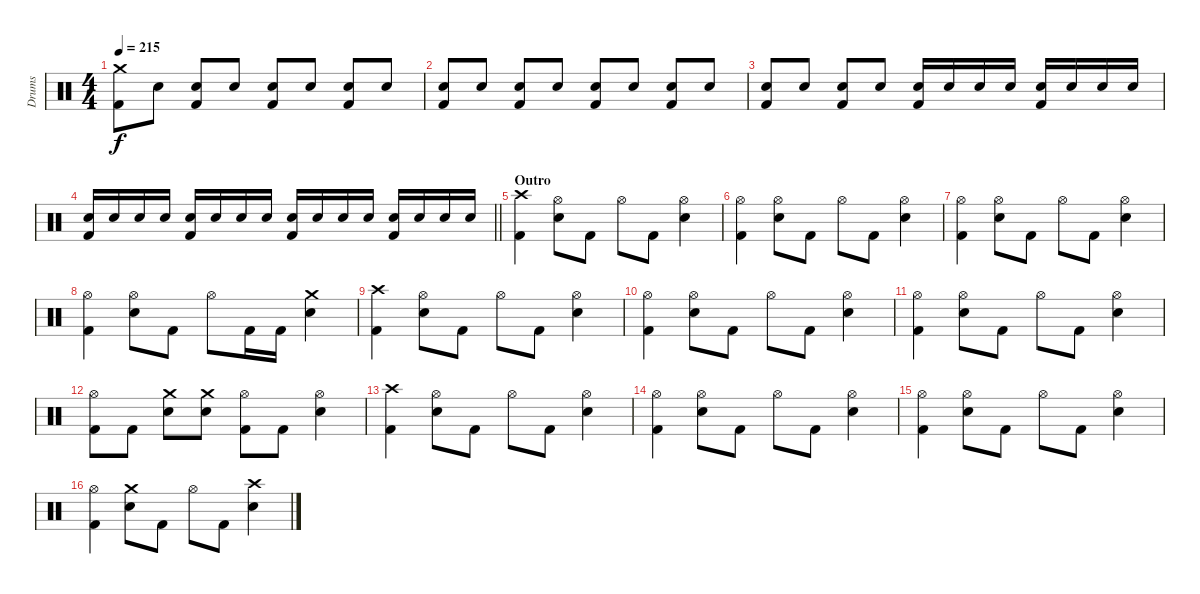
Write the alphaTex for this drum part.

\track ("Drums" "Drums") {instrument percussion}
\staff {score}
\articulation defaults
\ts (4 4)
\tempo 215
\clef neutral
\ks c
("Crash medium (hit)" "Kick (hit) 2").8{dy f} "Electric Snare (hit)".8{volume 9} ("Electric Snare (hit)" "Kick (hit) 2").8 "Electric Snare (hit)".8 ("Electric Snare (hit)" "Kick (hit) 2").8 "Electric Snare (hit)".8 ("Electric Snare (hit)" "Kick (hit) 2").8 "Electric Snare (hit)".8 |
("Electric Snare (hit)" "Kick (hit) 2").8 "Electric Snare (hit)".8 ("Electric Snare (hit)" "Kick (hit) 2").8 "Electric Snare (hit)".8 ("Electric Snare (hit)" "Kick (hit) 2").8 "Electric Snare (hit)".8 ("Electric Snare (hit)" "Kick (hit) 2").8 "Electric Snare (hit)".8 |
("Electric Snare (hit)" "Kick (hit) 2").8 "Electric Snare (hit)".8 ("Electric Snare (hit)" "Kick (hit) 2").8 "Electric Snare (hit)".8 ("Electric Snare (hit)" "Kick (hit) 2").16 "Electric Snare (hit)".16 "Electric Snare (hit)".16 "Electric Snare (hit)".16 ("Electric Snare (hit)" "Kick (hit) 2").16{volume 12} "Electric Snare (hit)".16 "Electric Snare (hit)".16 "Electric Snare (hit)".16 |
\barLineRight lightlight
("Electric Snare (hit)" "Kick (hit) 2").16 "Electric Snare (hit)".16 "Electric Snare (hit)".16 "Electric Snare (hit)".16 ("Electric Snare (hit)" "Kick (hit) 2").16 "Electric Snare (hit)".16 "Electric Snare (hit)".16 "Electric Snare (hit)".16 ("Electric Snare (hit)" "Kick (hit) 2").16 "Electric Snare (hit)".16 "Electric Snare (hit)".16 "Electric Snare (hit)".16 ("Electric Snare (hit)" "Kick (hit) 2").16 "Electric Snare (hit)".16 "Electric Snare (hit)".16 "Electric Snare (hit)".16 |
\section ("" "Outro")
("Crash high (hit)" "Kick (hit) 2").4 ("Hi-Hat (open)" "Electric Snare (hit)").8 "Kick (hit) 2".8 "Hi-Hat (open)".8 "Kick (hit) 2".8 ("Hi-Hat (open)" "Electric Snare (hit)").4 |
("Hi-Hat (open)" "Kick (hit) 2").4 ("Hi-Hat (open)" "Electric Snare (hit)").8 "Kick (hit) 2".8 "Hi-Hat (open)".8 "Kick (hit) 2".8 ("Hi-Hat (open)" "Electric Snare (hit)").4 |
("Hi-Hat (open)" "Kick (hit) 2").4 ("Hi-Hat (open)" "Electric Snare (hit)").8 "Kick (hit) 2".8 "Hi-Hat (open)".8 "Kick (hit) 2".8 ("Hi-Hat (open)" "Electric Snare (hit)").4 |
("Hi-Hat (open)" "Kick (hit) 2").4 ("Hi-Hat (open)" "Electric Snare (hit)").8 "Kick (hit) 2".8 "Hi-Hat (open)".8 "Kick (hit) 2".16 "Kick (hit) 2".16 ("Crash medium (hit)" "Electric Snare (hit)").4 |
("Crash high (hit)" "Kick (hit) 2").4 ("Hi-Hat (open)" "Electric Snare (hit)").8 "Kick (hit) 2".8 "Hi-Hat (open)".8 "Kick (hit) 2".8 ("Hi-Hat (open)" "Electric Snare (hit)").4 |
("Hi-Hat (open)" "Kick (hit) 2").4 ("Hi-Hat (open)" "Electric Snare (hit)").8 "Kick (hit) 2".8 "Hi-Hat (open)".8 "Kick (hit) 2".8 ("Hi-Hat (open)" "Electric Snare (hit)").4 |
("Hi-Hat (open)" "Kick (hit) 2").4 ("Hi-Hat (open)" "Electric Snare (hit)").8 "Kick (hit) 2".8 "Hi-Hat (open)".8 "Kick (hit) 2".8 ("Hi-Hat (open)" "Electric Snare (hit)").4 |
("Hi-Hat (open)" "Kick (hit) 2").8 "Kick (hit) 2".8 ("Crash medium (hit)" "Electric Snare (hit)").8 ("Crash medium (hit)" "Electric Snare (hit)").8 ("Hi-Hat (open)" "Kick (hit) 2").8 "Kick (hit) 2".8 ("Hi-Hat (open)" "Electric Snare (hit)").4 |
("Crash high (hit)" "Kick (hit) 2").4 ("Hi-Hat (open)" "Electric Snare (hit)").8 "Kick (hit) 2".8 "Hi-Hat (open)".8 "Kick (hit) 2".8 ("Hi-Hat (open)" "Electric Snare (hit)").4 |
("Hi-Hat (open)" "Kick (hit) 2").4 ("Hi-Hat (open)" "Electric Snare (hit)").8 "Kick (hit) 2".8 "Hi-Hat (open)".8 "Kick (hit) 2".8 ("Hi-Hat (open)" "Electric Snare (hit)").4 |
("Hi-Hat (open)" "Kick (hit) 2").4 ("Hi-Hat (open)" "Electric Snare (hit)").8 "Kick (hit) 2".8 "Hi-Hat (open)".8 "Kick (hit) 2".8 ("Hi-Hat (open)" "Electric Snare (hit)").4 |
("Hi-Hat (open)" "Kick (hit) 2").4 ("Crash medium (hit)" "Electric Snare (hit)").8 "Kick (hit) 2".8 "Hi-Hat (open)".8 "Kick (hit) 2".8 ("Crash high (hit)" "Electric Snare (hit)").4
